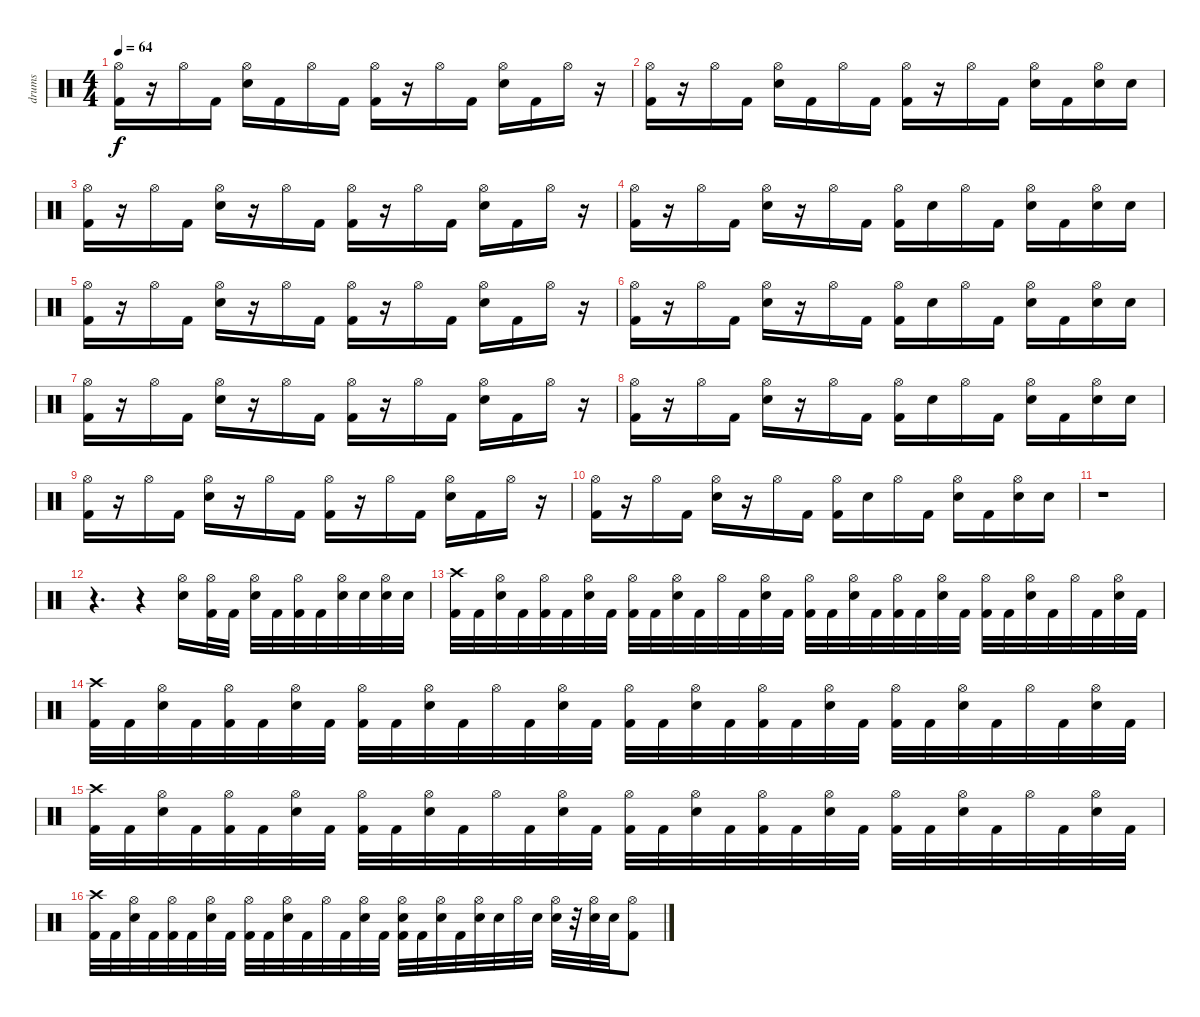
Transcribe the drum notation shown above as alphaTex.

\track ("drums" "drums") {instrument percussion}
\staff {score}
\articulation defaults
\ts (4 4)
\tempo 64
\clef neutral
\ks c
("Hi-Hat (open)" "Kick (hit) 2").16{dy f} r.16 "Hi-Hat (open)".16 "Kick (hit) 2".16 ("Snare (hit) 2" "Hi-Hat (open)").16 "Kick (hit) 2".16 "Hi-Hat (open)".16 "Kick (hit) 2".16 ("Hi-Hat (open)" "Kick (hit) 2").16 r.16 "Hi-Hat (open)".16 "Kick (hit) 2".16 ("Snare (hit) 2" "Hi-Hat (open)").16 "Kick (hit) 2".16 "Hi-Hat (open)".16 r.16 |
("Hi-Hat (open)" "Kick (hit) 2").16 r.16 "Hi-Hat (open)".16 "Kick (hit) 2".16 ("Snare (hit) 2" "Hi-Hat (open)").16 "Kick (hit) 2".16 "Hi-Hat (open)".16 "Kick (hit) 2".16 ("Hi-Hat (open)" "Kick (hit) 2").16 r.16 "Hi-Hat (open)".16 "Kick (hit) 2".16 ("Snare (hit) 2" "Hi-Hat (open)").16 "Kick (hit) 2".16 ("Snare (hit) 2" "Hi-Hat (open)").16 "Snare (hit) 2".16 |
("Hi-Hat (open)" "Kick (hit) 2").16 r.16 "Hi-Hat (open)".16 "Kick (hit) 2".16 ("Snare (hit) 2" "Hi-Hat (open)").16 r.16 "Hi-Hat (open)".16 "Kick (hit) 2".16 ("Hi-Hat (open)" "Kick (hit) 2").16 r.16 "Hi-Hat (open)".16 "Kick (hit) 2".16 ("Snare (hit) 2" "Hi-Hat (open)").16 "Kick (hit) 2".16 "Hi-Hat (open)".16 r.16 |
("Hi-Hat (open)" "Kick (hit) 2").16 r.16 "Hi-Hat (open)".16 "Kick (hit) 2".16 ("Snare (hit) 2" "Hi-Hat (open)").16 r.16 "Hi-Hat (open)".16 "Kick (hit) 2".16 ("Hi-Hat (open)" "Kick (hit) 2").16 "Snare (hit) 2".16 "Hi-Hat (open)".16 "Kick (hit) 2".16 ("Snare (hit) 2" "Hi-Hat (open)").16 "Kick (hit) 2".16 ("Snare (hit) 2" "Hi-Hat (open)").16 "Snare (hit) 2".16 |
("Hi-Hat (open)" "Kick (hit) 2").16 r.16 "Hi-Hat (open)".16 "Kick (hit) 2".16 ("Snare (hit) 2" "Hi-Hat (open)").16 r.16 "Hi-Hat (open)".16 "Kick (hit) 2".16 ("Hi-Hat (open)" "Kick (hit) 2").16 r.16 "Hi-Hat (open)".16 "Kick (hit) 2".16 ("Snare (hit) 2" "Hi-Hat (open)").16 "Kick (hit) 2".16 "Hi-Hat (open)".16 r.16 |
("Hi-Hat (open)" "Kick (hit) 2").16 r.16 "Hi-Hat (open)".16 "Kick (hit) 2".16 ("Snare (hit) 2" "Hi-Hat (open)").16 r.16 "Hi-Hat (open)".16 "Kick (hit) 2".16 ("Hi-Hat (open)" "Kick (hit) 2").16 "Snare (hit) 2".16 "Hi-Hat (open)".16 "Kick (hit) 2".16 ("Snare (hit) 2" "Hi-Hat (open)").16 "Kick (hit) 2".16 ("Snare (hit) 2" "Hi-Hat (open)").16 "Snare (hit) 2".16 |
("Hi-Hat (open)" "Kick (hit) 2").16 r.16 "Hi-Hat (open)".16 "Kick (hit) 2".16 ("Snare (hit) 2" "Hi-Hat (open)").16 r.16 "Hi-Hat (open)".16 "Kick (hit) 2".16 ("Hi-Hat (open)" "Kick (hit) 2").16 r.16 "Hi-Hat (open)".16 "Kick (hit) 2".16 ("Snare (hit) 2" "Hi-Hat (open)").16 "Kick (hit) 2".16 "Hi-Hat (open)".16 r.16 |
("Hi-Hat (open)" "Kick (hit) 2").16 r.16 "Hi-Hat (open)".16 "Kick (hit) 2".16 ("Snare (hit) 2" "Hi-Hat (open)").16 r.16 "Hi-Hat (open)".16 "Kick (hit) 2".16 ("Hi-Hat (open)" "Kick (hit) 2").16 "Snare (hit) 2".16 "Hi-Hat (open)".16 "Kick (hit) 2".16 ("Snare (hit) 2" "Hi-Hat (open)").16 "Kick (hit) 2".16 ("Snare (hit) 2" "Hi-Hat (open)").16 "Snare (hit) 2".16 |
("Hi-Hat (open)" "Kick (hit) 2").16 r.16 "Hi-Hat (open)".16 "Kick (hit) 2".16 ("Snare (hit) 2" "Hi-Hat (open)").16 r.16 "Hi-Hat (open)".16 "Kick (hit) 2".16 ("Hi-Hat (open)" "Kick (hit) 2").16 r.16 "Hi-Hat (open)".16 "Kick (hit) 2".16 ("Snare (hit) 2" "Hi-Hat (open)").16 "Kick (hit) 2".16 "Hi-Hat (open)".16 r.16 |
("Hi-Hat (open)" "Kick (hit) 2").16 r.16 "Hi-Hat (open)".16 "Kick (hit) 2".16 ("Snare (hit) 2" "Hi-Hat (open)").16 r.16 "Hi-Hat (open)".16 "Kick (hit) 2".16 ("Hi-Hat (open)" "Kick (hit) 2").16 "Snare (hit) 2".16 "Hi-Hat (open)".16 "Kick (hit) 2".16 ("Snare (hit) 2" "Hi-Hat (open)").16 "Kick (hit) 2".16 ("Snare (hit) 2" "Hi-Hat (open)").16 "Snare (hit) 2".16 |
r.1 |
r.4{d} r.4 ("Snare (hit) 2" "Hi-Hat (open)").16 ("Hi-Hat (open)" "Kick (hit) 2").32 "Kick (hit) 2".32 ("Snare (hit) 2" "Hi-Hat (open)").32 "Kick (hit) 2".32 ("Hi-Hat (open)" "Kick (hit) 2").32 "Kick (hit) 2".32 ("Snare (hit) 2" "Hi-Hat (open)").32 "Snare (hit) 2".32 ("Snare (hit) 2" "Hi-Hat (open)").32 "Snare (hit) 2".32 |
("Crash high (hit)" "Kick (hit) 2").32 "Kick (hit) 2".32 ("Snare (hit) 2" "Hi-Hat (open)").32 "Kick (hit) 2".32 ("Hi-Hat (open)" "Kick (hit) 2").32 "Kick (hit) 2".32 ("Snare (hit) 2" "Hi-Hat (open)").32 "Kick (hit) 2".32 ("Hi-Hat (open)" "Kick (hit) 2").32 "Kick (hit) 2".32 ("Snare (hit) 2" "Hi-Hat (open)").32 "Kick (hit) 2".32 "Hi-Hat (open)".32 "Kick (hit) 2".32 ("Snare (hit) 2" "Hi-Hat (open)").32 "Kick (hit) 2".32 ("Hi-Hat (open)" "Kick (hit) 2").32 "Kick (hit) 2".32 ("Snare (hit) 2" "Hi-Hat (open)").32 "Kick (hit) 2".32 ("Hi-Hat (open)" "Kick (hit) 2").32 "Kick (hit) 2".32 ("Snare (hit) 2" "Hi-Hat (open)").32 "Kick (hit) 2".32 ("Hi-Hat (open)" "Kick (hit) 2").32 "Kick (hit) 2".32 ("Snare (hit) 2" "Hi-Hat (open)").32 "Kick (hit) 2".32 "Hi-Hat (open)".32 "Kick (hit) 2".32 ("Snare (hit) 2" "Hi-Hat (open)").32 "Kick (hit) 2".32 |
("Crash high (hit)" "Kick (hit) 2").32 "Kick (hit) 2".32 ("Snare (hit) 2" "Hi-Hat (open)").32 "Kick (hit) 2".32 ("Hi-Hat (open)" "Kick (hit) 2").32 "Kick (hit) 2".32 ("Snare (hit) 2" "Hi-Hat (open)").32 "Kick (hit) 2".32 ("Hi-Hat (open)" "Kick (hit) 2").32 "Kick (hit) 2".32 ("Snare (hit) 2" "Hi-Hat (open)").32 "Kick (hit) 2".32 "Hi-Hat (open)".32 "Kick (hit) 2".32 ("Snare (hit) 2" "Hi-Hat (open)").32 "Kick (hit) 2".32 ("Hi-Hat (open)" "Kick (hit) 2").32 "Kick (hit) 2".32 ("Snare (hit) 2" "Hi-Hat (open)").32 "Kick (hit) 2".32 ("Hi-Hat (open)" "Kick (hit) 2").32 "Kick (hit) 2".32 ("Snare (hit) 2" "Hi-Hat (open)").32 "Kick (hit) 2".32 ("Hi-Hat (open)" "Kick (hit) 2").32 "Kick (hit) 2".32 ("Snare (hit) 2" "Hi-Hat (open)").32 "Kick (hit) 2".32 "Hi-Hat (open)".32 "Kick (hit) 2".32 ("Snare (hit) 2" "Hi-Hat (open)").32 "Kick (hit) 2".32 |
("Crash high (hit)" "Kick (hit) 2").32 "Kick (hit) 2".32 ("Snare (hit) 2" "Hi-Hat (open)").32 "Kick (hit) 2".32 ("Hi-Hat (open)" "Kick (hit) 2").32 "Kick (hit) 2".32 ("Snare (hit) 2" "Hi-Hat (open)").32 "Kick (hit) 2".32 ("Hi-Hat (open)" "Kick (hit) 2").32 "Kick (hit) 2".32 ("Snare (hit) 2" "Hi-Hat (open)").32 "Kick (hit) 2".32 "Hi-Hat (open)".32 "Kick (hit) 2".32 ("Snare (hit) 2" "Hi-Hat (open)").32 "Kick (hit) 2".32 ("Hi-Hat (open)" "Kick (hit) 2").32 "Kick (hit) 2".32 ("Snare (hit) 2" "Hi-Hat (open)").32 "Kick (hit) 2".32 ("Hi-Hat (open)" "Kick (hit) 2").32 "Kick (hit) 2".32 ("Snare (hit) 2" "Hi-Hat (open)").32 "Kick (hit) 2".32 ("Hi-Hat (open)" "Kick (hit) 2").32 "Kick (hit) 2".32 ("Snare (hit) 2" "Hi-Hat (open)").32 "Kick (hit) 2".32 "Hi-Hat (open)".32 "Kick (hit) 2".32 ("Snare (hit) 2" "Hi-Hat (open)").32 "Kick (hit) 2".32 |
("Crash high (hit)" "Kick (hit) 2").32 "Kick (hit) 2".32 ("Snare (hit) 2" "Hi-Hat (open)").32 "Kick (hit) 2".32 ("Hi-Hat (open)" "Kick (hit) 2").32 "Kick (hit) 2".32 ("Snare (hit) 2" "Hi-Hat (open)").32 "Kick (hit) 2".32 ("Hi-Hat (open)" "Kick (hit) 2").32 "Kick (hit) 2".32 ("Snare (hit) 2" "Hi-Hat (open)").32 "Kick (hit) 2".32 "Hi-Hat (open)".32 "Kick (hit) 2".32 ("Snare (hit) 2" "Hi-Hat (open)").32 "Kick (hit) 2".32 ("Snare (hit) 2" "Hi-Hat (open)" "Kick (hit) 2").32 "Kick (hit) 2".32 ("Snare (hit) 2" "Hi-Hat (open)").32 "Kick (hit) 2".32 ("Snare (hit) 2" "Hi-Hat (open)").32 "Snare (hit) 2".32 "Hi-Hat (open)".32 "Snare (hit) 2".32 ("Snare (hit) 2" "Hi-Hat (open)").32 r.32 ("Snare (hit) 2" "Hi-Hat (open)").32 "Snare (hit) 2".32 ("Hi-Hat (open)" "Kick (hit) 2").8
